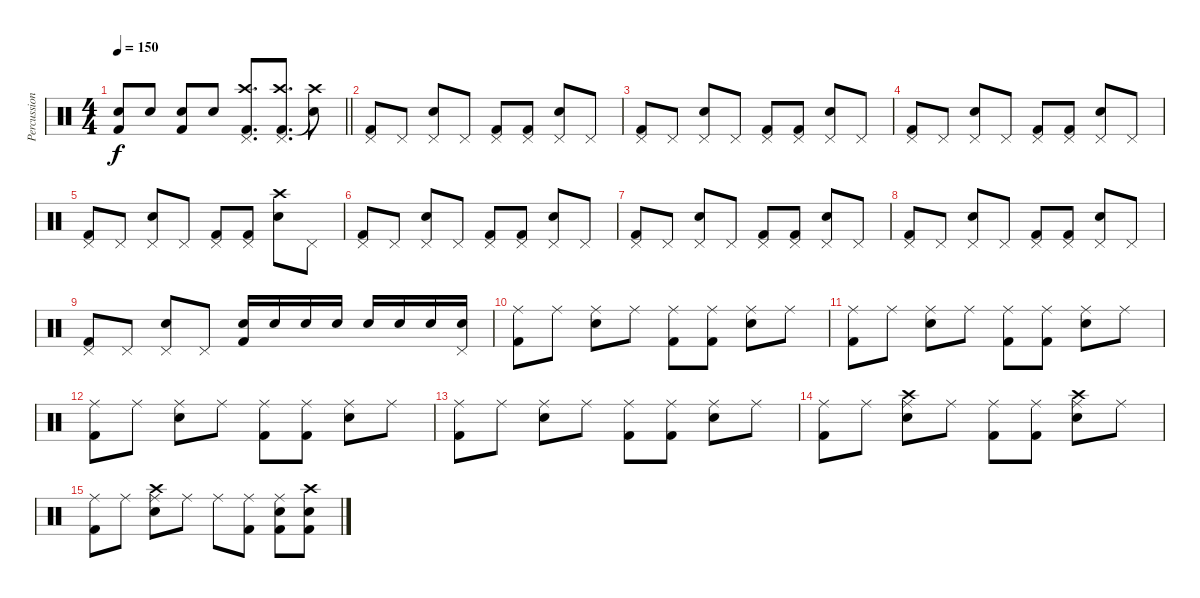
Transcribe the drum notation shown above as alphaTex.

\track ("Percussion" "Percussion") {instrument percussion}
\staff {score}
\articulation defaults
\ts (4 4)
\tempo 150
\clef neutral
\barLineRight lightlight
\ks c
("Electric Snare (hit)" "Kick (hit) 2").8{dy f} "Electric Snare (hit)".8 ("Electric Snare (hit)" "Kick (hit) 2").8 "Electric Snare (hit)".8 ("Crash high (hit)" "Kick (hit) 2" "Pedal Hi-Hat (hit)").8{d} ("Crash high (hit)" "Kick (hit) 2" "Pedal Hi-Hat (hit)").8{d} ("Crash high (hit)" "Snare (hit)"{t}).8 |
("Pedal Hi-Hat (hit)" "Kick (hit) 2").8 "Pedal Hi-Hat (hit)".8 ("Pedal Hi-Hat (hit)" "Electric Snare (hit)").8 "Pedal Hi-Hat (hit)".8 ("Pedal Hi-Hat (hit)" "Kick (hit) 2").8 ("Pedal Hi-Hat (hit)" "Kick (hit) 2").8 ("Pedal Hi-Hat (hit)" "Electric Snare (hit)").8 "Pedal Hi-Hat (hit)".8 |
("Pedal Hi-Hat (hit)" "Kick (hit) 2").8 "Pedal Hi-Hat (hit)".8 ("Pedal Hi-Hat (hit)" "Electric Snare (hit)").8 "Pedal Hi-Hat (hit)".8 ("Pedal Hi-Hat (hit)" "Kick (hit) 2").8 ("Pedal Hi-Hat (hit)" "Kick (hit) 2").8 ("Pedal Hi-Hat (hit)" "Electric Snare (hit)").8 "Pedal Hi-Hat (hit)".8 |
("Pedal Hi-Hat (hit)" "Kick (hit) 2").8 "Pedal Hi-Hat (hit)".8 ("Pedal Hi-Hat (hit)" "Electric Snare (hit)").8 "Pedal Hi-Hat (hit)".8 ("Pedal Hi-Hat (hit)" "Kick (hit) 2").8 ("Pedal Hi-Hat (hit)" "Kick (hit) 2").8 ("Pedal Hi-Hat (hit)" "Electric Snare (hit)").8 "Pedal Hi-Hat (hit)".8 |
("Pedal Hi-Hat (hit)" "Kick (hit) 2").8 "Pedal Hi-Hat (hit)".8 ("Pedal Hi-Hat (hit)" "Electric Snare (hit)").8 "Pedal Hi-Hat (hit)".8 ("Pedal Hi-Hat (hit)" "Kick (hit) 2").8 ("Pedal Hi-Hat (hit)" "Kick (hit) 2").8 ("Crash high (hit)" "Electric Snare (hit)").8 "Pedal Hi-Hat (hit)".8 |
("Pedal Hi-Hat (hit)" "Kick (hit) 2").8 "Pedal Hi-Hat (hit)".8 ("Pedal Hi-Hat (hit)" "Electric Snare (hit)").8 "Pedal Hi-Hat (hit)".8 ("Pedal Hi-Hat (hit)" "Kick (hit) 2").8 ("Pedal Hi-Hat (hit)" "Kick (hit) 2").8 ("Pedal Hi-Hat (hit)" "Electric Snare (hit)").8 "Pedal Hi-Hat (hit)".8 |
("Pedal Hi-Hat (hit)" "Kick (hit) 2").8 "Pedal Hi-Hat (hit)".8 ("Pedal Hi-Hat (hit)" "Electric Snare (hit)").8 "Pedal Hi-Hat (hit)".8 ("Pedal Hi-Hat (hit)" "Kick (hit) 2").8 ("Pedal Hi-Hat (hit)" "Kick (hit) 2").8 ("Pedal Hi-Hat (hit)" "Electric Snare (hit)").8 "Pedal Hi-Hat (hit)".8 |
("Pedal Hi-Hat (hit)" "Kick (hit) 2").8 "Pedal Hi-Hat (hit)".8 ("Pedal Hi-Hat (hit)" "Electric Snare (hit)").8 "Pedal Hi-Hat (hit)".8 ("Pedal Hi-Hat (hit)" "Kick (hit) 2").8 ("Pedal Hi-Hat (hit)" "Kick (hit) 2").8 ("Pedal Hi-Hat (hit)" "Electric Snare (hit)").8 "Pedal Hi-Hat (hit)".8 |
("Pedal Hi-Hat (hit)" "Kick (hit) 2").8 "Pedal Hi-Hat (hit)".8 ("Pedal Hi-Hat (hit)" "Electric Snare (hit)").8 "Pedal Hi-Hat (hit)".8 ("Electric Snare (hit)" "Kick (hit) 2").16 "Electric Snare (hit)".16 "Electric Snare (hit)".16 "Electric Snare (hit)".16 "Electric Snare (hit)".16 "Electric Snare (hit)".16 "Electric Snare (hit)".16 ("Electric Snare (hit)" "Pedal Hi-Hat (hit)").16 |
("Ride (middle)" "Kick (hit) 2").8 "Ride (middle)".8 ("Ride (middle)" "Electric Snare (hit)").8 "Ride (middle)".8 ("Ride (middle)" "Kick (hit) 2").8 ("Ride (middle)" "Kick (hit) 2").8 ("Ride (middle)" "Electric Snare (hit)").8 "Ride (middle)".8 |
("Ride (middle)" "Kick (hit) 2").8 "Ride (middle)".8 ("Ride (middle)" "Electric Snare (hit)").8 "Ride (middle)".8 ("Ride (middle)" "Kick (hit) 2").8 ("Ride (middle)" "Kick (hit) 2").8 ("Ride (middle)" "Electric Snare (hit)").8 "Ride (middle)".8 |
("Ride (middle)" "Kick (hit) 2").8 "Ride (middle)".8 ("Ride (middle)" "Electric Snare (hit)").8 "Ride (middle)".8 ("Ride (middle)" "Kick (hit) 2").8 ("Ride (middle)" "Kick (hit) 2").8 ("Ride (middle)" "Electric Snare (hit)").8 "Ride (middle)".8 |
("Ride (middle)" "Kick (hit) 2").8 "Ride (middle)".8 ("Ride (middle)" "Electric Snare (hit)").8 "Ride (middle)".8 ("Ride (middle)" "Kick (hit) 2").8 ("Ride (middle)" "Kick (hit) 2").8 ("Ride (middle)" "Electric Snare (hit)").8 "Ride (middle)".8 |
("Ride (middle)" "Kick (hit) 2").8 "Ride (middle)".8 ("Ride (middle)" "Electric Snare (hit)" "Crash high (hit)").8 "Ride (middle)".8 ("Ride (middle)" "Kick (hit) 2").8 ("Ride (middle)" "Kick (hit) 2").8 ("Ride (middle)" "Electric Snare (hit)" "Crash high (hit)").8 "Ride (middle)".8 |
("Ride (middle)" "Kick (hit) 2").8 "Ride (middle)".8 ("Ride (middle)" "Electric Snare (hit)" "Crash high (hit)").8 "Ride (middle)".8 "Ride (middle)".8 ("Ride (middle)" "Kick (hit) 2").8 ("Ride (middle)" "Electric Snare (hit)" "Kick (hit) 2").8 ("Electric Snare (hit)" "Crash high (hit)" "Kick (hit) 2").8
